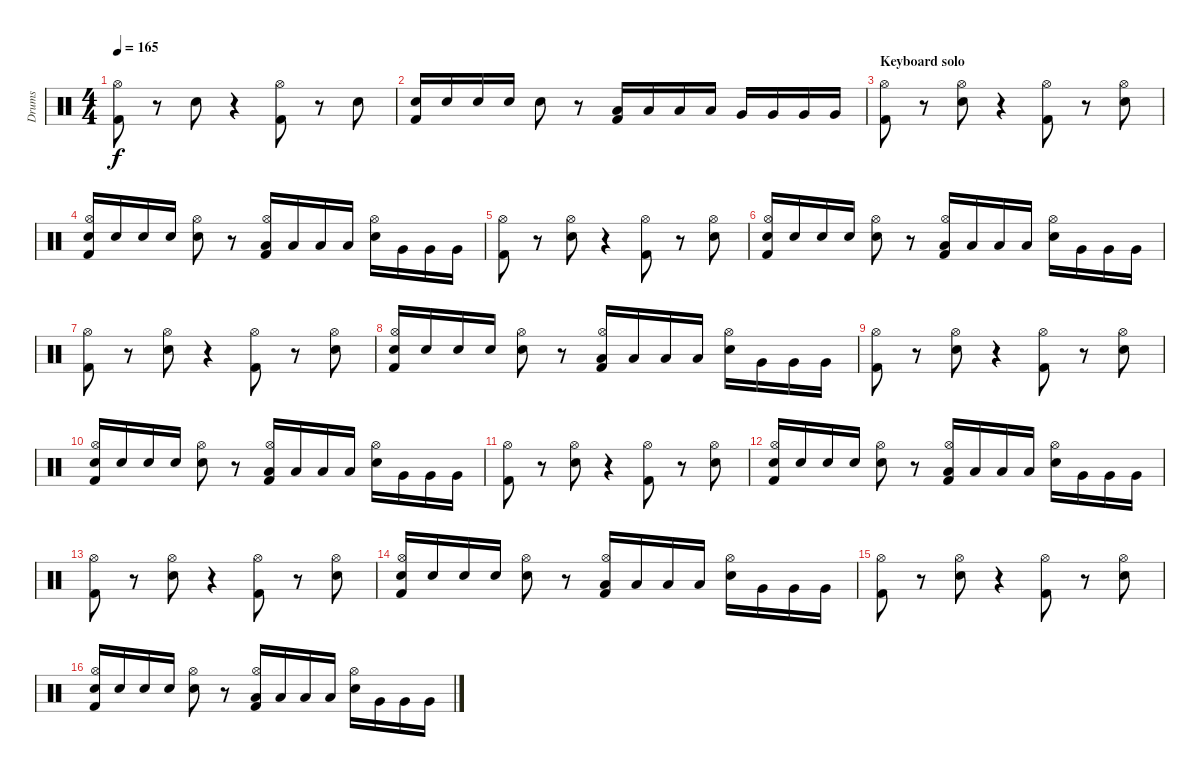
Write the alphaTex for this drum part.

\track ("Drums" "Drums") {instrument percussion}
\staff {score}
\articulation defaults
\ts (4 4)
\tempo 165
\clef neutral
\ks c
("Kick (hit) 2" "Hi-Hat (open)").8{dy f} r.8 "Electric Snare (hit)".8 r.4 ("Kick (hit) 2" "Hi-Hat (open)").8 r.8 "Electric Snare (hit)".8 |
("Kick (hit) 2" "Electric Snare (hit)").16 "Electric Snare (hit)".16 "Electric Snare (hit)".16 "Electric Snare (hit)".16 "Electric Snare (hit)".8 r.8 ("Kick (hit) 2" "Low Tom (hit)").16 "Low Tom (hit)".16 "Low Tom (hit)".16 "Low Tom (hit)".16 "Very Low Tom (hit)".16 "Very Low Tom (hit)".16 "Very Low Tom (hit)".16 "Very Low Tom (hit)".16 |
\section ("" "Keyboard solo ")
("Kick (hit) 2" "Hi-Hat (open)").8 r.8 ("Electric Snare (hit)" "Hi-Hat (open)").8 r.4 ("Kick (hit) 2" "Hi-Hat (open)").8 r.8 ("Electric Snare (hit)" "Hi-Hat (open)").8 |
("Kick (hit) 2" "Electric Snare (hit)" "Hi-Hat (open)").16 "Electric Snare (hit)".16 "Electric Snare (hit)".16 "Electric Snare (hit)".16 ("Electric Snare (hit)" "Hi-Hat (open)").8 r.8 ("Kick (hit) 2" "Low Tom (hit)" "Hi-Hat (open)").16 "Low Tom (hit)".16 "Low Tom (hit)".16 "Low Tom (hit)".16 ("Electric Snare (hit)" "Hi-Hat (open)").16 "Very Low Tom (hit)".16 "Very Low Tom (hit)".16 "Very Low Tom (hit)".16 |
("Kick (hit) 2" "Hi-Hat (open)").8 r.8 ("Electric Snare (hit)" "Hi-Hat (open)").8 r.4 ("Kick (hit) 2" "Hi-Hat (open)").8 r.8 ("Electric Snare (hit)" "Hi-Hat (open)").8 |
("Kick (hit) 2" "Electric Snare (hit)" "Hi-Hat (open)").16 "Electric Snare (hit)".16 "Electric Snare (hit)".16 "Electric Snare (hit)".16 ("Electric Snare (hit)" "Hi-Hat (open)").8 r.8 ("Kick (hit) 2" "Low Tom (hit)" "Hi-Hat (open)").16 "Low Tom (hit)".16 "Low Tom (hit)".16 "Low Tom (hit)".16 ("Electric Snare (hit)" "Hi-Hat (open)").16 "Very Low Tom (hit)".16 "Very Low Tom (hit)".16 "Very Low Tom (hit)".16 |
("Kick (hit) 2" "Hi-Hat (open)").8 r.8 ("Electric Snare (hit)" "Hi-Hat (open)").8 r.4 ("Kick (hit) 2" "Hi-Hat (open)").8 r.8 ("Electric Snare (hit)" "Hi-Hat (open)").8 |
("Kick (hit) 2" "Electric Snare (hit)" "Hi-Hat (open)").16 "Electric Snare (hit)".16 "Electric Snare (hit)".16 "Electric Snare (hit)".16 ("Electric Snare (hit)" "Hi-Hat (open)").8 r.8 ("Kick (hit) 2" "Low Tom (hit)" "Hi-Hat (open)").16 "Low Tom (hit)".16 "Low Tom (hit)".16 "Low Tom (hit)".16 ("Electric Snare (hit)" "Hi-Hat (open)").16 "Very Low Tom (hit)".16 "Very Low Tom (hit)".16 "Very Low Tom (hit)".16 |
("Kick (hit) 2" "Hi-Hat (open)").8 r.8 ("Electric Snare (hit)" "Hi-Hat (open)").8 r.4 ("Kick (hit) 2" "Hi-Hat (open)").8 r.8 ("Electric Snare (hit)" "Hi-Hat (open)").8 |
("Kick (hit) 2" "Electric Snare (hit)" "Hi-Hat (open)").16 "Electric Snare (hit)".16 "Electric Snare (hit)".16 "Electric Snare (hit)".16 ("Electric Snare (hit)" "Hi-Hat (open)").8 r.8 ("Kick (hit) 2" "Low Tom (hit)" "Hi-Hat (open)").16 "Low Tom (hit)".16 "Low Tom (hit)".16 "Low Tom (hit)".16 ("Electric Snare (hit)" "Hi-Hat (open)").16 "Very Low Tom (hit)".16 "Very Low Tom (hit)".16 "Very Low Tom (hit)".16 |
("Kick (hit) 2" "Hi-Hat (open)").8 r.8 ("Electric Snare (hit)" "Hi-Hat (open)").8 r.4 ("Kick (hit) 2" "Hi-Hat (open)").8 r.8 ("Electric Snare (hit)" "Hi-Hat (open)").8 |
("Kick (hit) 2" "Electric Snare (hit)" "Hi-Hat (open)").16 "Electric Snare (hit)".16 "Electric Snare (hit)".16 "Electric Snare (hit)".16 ("Electric Snare (hit)" "Hi-Hat (open)").8 r.8 ("Kick (hit) 2" "Low Tom (hit)" "Hi-Hat (open)").16 "Low Tom (hit)".16 "Low Tom (hit)".16 "Low Tom (hit)".16 ("Electric Snare (hit)" "Hi-Hat (open)").16 "Very Low Tom (hit)".16 "Very Low Tom (hit)".16 "Very Low Tom (hit)".16 |
("Kick (hit) 2" "Hi-Hat (open)").8 r.8 ("Electric Snare (hit)" "Hi-Hat (open)").8 r.4 ("Kick (hit) 2" "Hi-Hat (open)").8 r.8 ("Electric Snare (hit)" "Hi-Hat (open)").8 |
("Kick (hit) 2" "Electric Snare (hit)" "Hi-Hat (open)").16 "Electric Snare (hit)".16 "Electric Snare (hit)".16 "Electric Snare (hit)".16 ("Electric Snare (hit)" "Hi-Hat (open)").8 r.8 ("Kick (hit) 2" "Low Tom (hit)" "Hi-Hat (open)").16 "Low Tom (hit)".16 "Low Tom (hit)".16 "Low Tom (hit)".16 ("Electric Snare (hit)" "Hi-Hat (open)").16 "Very Low Tom (hit)".16 "Very Low Tom (hit)".16 "Very Low Tom (hit)".16 |
("Kick (hit) 2" "Hi-Hat (open)").8 r.8 ("Electric Snare (hit)" "Hi-Hat (open)").8 r.4 ("Kick (hit) 2" "Hi-Hat (open)").8 r.8 ("Electric Snare (hit)" "Hi-Hat (open)").8 |
("Kick (hit) 2" "Electric Snare (hit)" "Hi-Hat (open)").16 "Electric Snare (hit)".16 "Electric Snare (hit)".16 "Electric Snare (hit)".16 ("Electric Snare (hit)" "Hi-Hat (open)").8 r.8 ("Kick (hit) 2" "Low Tom (hit)" "Hi-Hat (open)").16 "Low Tom (hit)".16 "Low Tom (hit)".16 "Low Tom (hit)".16 ("Electric Snare (hit)" "Hi-Hat (open)").16 "Very Low Tom (hit)".16 "Very Low Tom (hit)".16 "Very Low Tom (hit)".16
